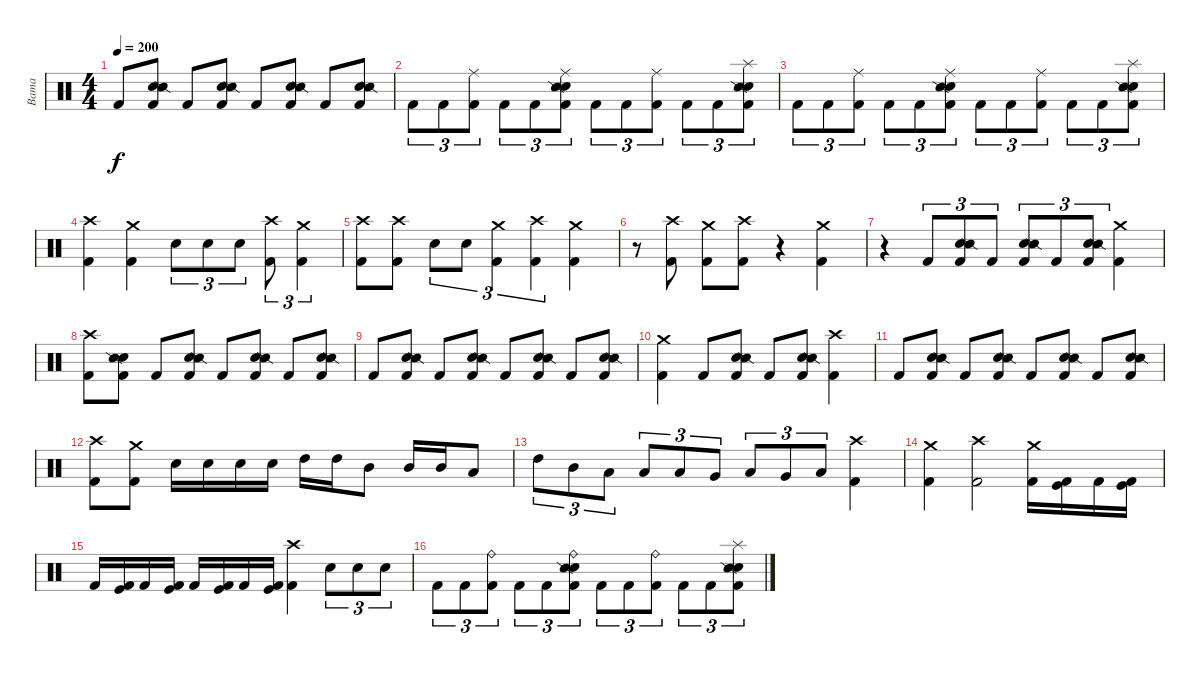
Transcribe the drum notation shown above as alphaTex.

\track ("Bama" "Bama") {instrument percussion}
\staff {score}
\articulation defaults
\ts (4 4)
\tempo 200
\clef neutral
\ks c "Kick (hit) 2".8{dy f}
("Electric Snare (hit)" "Snare (side stick) 2" "Kick (hit) 2").8 "Kick (hit) 2".8 ("Electric Snare (hit)" "Snare (side stick) 2" "Kick (hit) 2").8 "Kick (hit) 2".8 ("Electric Snare (hit)" "Snare (side stick) 2" "Kick (hit) 2").8 "Kick (hit) 2".8 ("Electric Snare (hit)" "Snare (side stick) 2" "Kick (hit) 2").8 |
"Kick (hit) 2".8{tu (3 2)} "Kick (hit) 2".8{tu (3 2)} ("Ride (middle)" "Kick (hit) 2").8{tu (3 2)} "Kick (hit) 2".8{tu (3 2)} "Kick (hit) 2".8{tu (3 2)} ("Ride (middle)" "Electric Snare (hit)" "Snare (side stick) 2" "Kick (hit) 2").8{tu (3 2)} "Kick (hit) 2".8{tu (3 2)} "Kick (hit) 2".8{tu (3 2)} ("Ride (middle)" "Kick (hit) 2").8{tu (3 2)} "Kick (hit) 2".8{tu (3 2)} "Kick (hit) 2".8{tu (3 2)} ("Splash (hit)" "Electric Snare (hit)" "Snare (side stick) 2" "Kick (hit) 2").8{tu (3 2)} |
"Kick (hit) 2".8{tu (3 2)} "Kick (hit) 2".8{tu (3 2)} ("Ride (middle)" "Kick (hit) 2").8{tu (3 2)} "Kick (hit) 2".8{tu (3 2)} "Kick (hit) 2".8{tu (3 2)} ("Ride (middle)" "Electric Snare (hit)" "Snare (side stick) 2" "Kick (hit) 2").8{tu (3 2)} "Kick (hit) 2".8{tu (3 2)} "Kick (hit) 2".8{tu (3 2)} ("Ride (middle)" "Kick (hit) 2").8{tu (3 2)} "Kick (hit) 2".8{tu (3 2)} "Kick (hit) 2".8{tu (3 2)} ("Splash (hit)" "Electric Snare (hit)" "Snare (side stick) 2" "Kick (hit) 2").8{tu (3 2)} |
("Crash high (hit)" "Kick (hit) 2").4 ("Crash medium (hit)" "Kick (hit) 2").4 "Electric Snare (hit)".8{tu (3 2)} "Electric Snare (hit)".8{tu (3 2)} "Electric Snare (hit)".8{tu (3 2)} ("Crash high (hit)" "Kick (hit) 2").8{tu (3 2)} ("Crash medium (hit)" "Kick (hit) 2").4{tu (3 2)} |
("Crash high (hit)" "Kick (hit) 2").8 ("Crash high (hit)" "Kick (hit) 2").8 "Electric Snare (hit)".8{tu (3 2)} "Electric Snare (hit)".8{tu (3 2)} ("Crash medium (hit)" "Kick (hit) 2").4{tu (3 2)} ("Crash high (hit)" "Kick (hit) 2").4{tu (3 2)} ("Crash medium (hit)" "Kick (hit) 2").4 |
r.8 ("Crash high (hit)" "Kick (hit) 2").8 ("Crash medium (hit)" "Kick (hit) 2").8 ("Crash high (hit)" "Kick (hit) 2").8 r.4 ("Crash medium (hit)" "Kick (hit) 2").4 |
r.4 "Kick (hit) 2".8{tu (3 2)} ("Electric Snare (hit)" "Snare (side stick) 2" "Kick (hit) 2").8{tu (3 2)} "Kick (hit) 2".8{tu (3 2)} ("Electric Snare (hit)" "Snare (side stick) 2" "Kick (hit) 2").8{tu (3 2)} "Kick (hit) 2".8{tu (3 2)} ("Electric Snare (hit)" "Snare (side stick) 2" "Kick (hit) 2").8{tu (3 2)} ("Crash medium (hit)" "Kick (hit) 2").4 |
("Crash high (hit)" "Kick (hit) 2").8 ("Electric Snare (hit)" "Snare (side stick) 2" "Kick (hit) 2").8 "Kick (hit) 2".8 ("Electric Snare (hit)" "Snare (side stick) 2" "Kick (hit) 2").8 "Kick (hit) 2".8 ("Electric Snare (hit)" "Snare (side stick) 2" "Kick (hit) 2").8 "Kick (hit) 2".8 ("Electric Snare (hit)" "Snare (side stick) 2" "Kick (hit) 2").8 |
"Kick (hit) 2".8 ("Electric Snare (hit)" "Snare (side stick) 2" "Kick (hit) 2").8 "Kick (hit) 2".8 ("Electric Snare (hit)" "Snare (side stick) 2" "Kick (hit) 2").8 "Kick (hit) 2".8 ("Electric Snare (hit)" "Snare (side stick) 2" "Kick (hit) 2").8 "Kick (hit) 2".8 ("Electric Snare (hit)" "Snare (side stick) 2" "Kick (hit) 2").8 |
("Crash medium (hit)" "Kick (hit) 2").4 "Kick (hit) 2".8 ("Electric Snare (hit)" "Snare (side stick) 2" "Kick (hit) 2").8 "Kick (hit) 2".8 ("Electric Snare (hit)" "Snare (side stick) 2" "Kick (hit) 2").8 ("Crash high (hit)" "Kick (hit) 2").4 |
"Kick (hit) 2".8 ("Electric Snare (hit)" "Snare (side stick) 2" "Kick (hit) 2").8 "Kick (hit) 2".8 ("Electric Snare (hit)" "Snare (side stick) 2" "Kick (hit) 2").8 "Kick (hit) 2".8 ("Electric Snare (hit)" "Snare (side stick) 2" "Kick (hit) 2").8 "Kick (hit) 2".8 ("Electric Snare (hit)" "Snare (side stick) 2" "Kick (hit) 2").8 |
("Crash high (hit)" "Kick (hit) 2").8 ("Crash medium (hit)" "Kick (hit) 2").8 "Electric Snare (hit)".16 "Electric Snare (hit)".16 "Electric Snare (hit)".16 "Electric Snare (hit)".16 "High Tom (hit)".16 "High Tom (hit)".16 "Mid Tom (hit)".8 "Mid Tom (hit)".16 "Mid Tom (hit)".16 "Low Tom (hit)".8 |
"High Tom (hit)".8{tu (3 2)} "Mid Tom (hit)".8{tu (3 2)} "Low Tom (hit)".8{tu (3 2)} "Low Tom (hit)".8{tu (3 2)} "Low Tom (hit)".8{tu (3 2)} "Very Low Tom (hit)".8{tu (3 2)} "Low Tom (hit)".8{tu (3 2)} "Very Low Tom (hit)".8{tu (3 2)} "Low Floor Tom (hit)".8{tu (3 2)} ("Crash high (hit)" "Kick (hit) 2").4 |
("Crash medium (hit)" "Kick (hit) 2").4 ("Crash high (hit)" "Kick (hit) 2").2 ("Crash medium (hit)" "Kick (hit) 2").16 ("Kick (hit)" "Kick (hit) 2").16 "Kick (hit) 2".16 ("Kick (hit)" "Kick (hit) 2").16 |
"Kick (hit) 2".16 ("Kick (hit)" "Kick (hit) 2").16 "Kick (hit) 2".16 ("Kick (hit)" "Kick (hit) 2").16 "Kick (hit) 2".16 ("Kick (hit)" "Kick (hit) 2").16 "Kick (hit) 2".16 ("Kick (hit)" "Kick (hit) 2").16 ("Crash high (hit)" "Kick (hit) 2").4 "Electric Snare (hit)".8{tu (3 2)} "Electric Snare (hit)".8{tu (3 2)} "Electric Snare (hit)".8{tu (3 2)} |
"Kick (hit) 2".8{tu (3 2)} "Kick (hit) 2".8{tu (3 2)} ("Ride (bell)" "Kick (hit) 2").8{tu (3 2)} "Kick (hit) 2".8{tu (3 2)} "Kick (hit) 2".8{tu (3 2)} ("Ride (bell)" "Electric Snare (hit)" "Snare (side stick) 2" "Kick (hit) 2").8{tu (3 2)} "Kick (hit) 2".8{tu (3 2)} "Kick (hit) 2".8{tu (3 2)} ("Ride (bell)" "Kick (hit) 2").8{tu (3 2)} "Kick (hit) 2".8{tu (3 2)} "Kick (hit) 2".8{tu (3 2)} ("Splash (hit)" "Electric Snare (hit)" "Snare (side stick) 2" "Kick (hit) 2").8{tu (3 2)}
